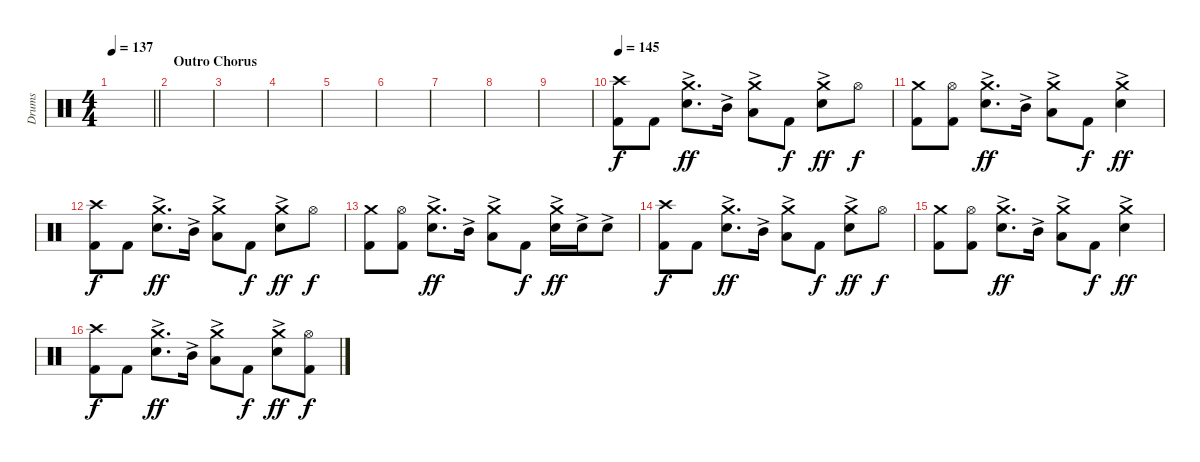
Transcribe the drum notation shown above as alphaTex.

\track ("Drums" "Drums") {instrument percussion}
\staff {score}
\articulation defaults
\ts (4 4)
\tempo 137
\clef neutral
\barLineRight lightlight
\ks c
|
\section ("" "Outro Chorus")
|
|
|
|
|
|
|
|
\tempo 145
("Crash high (hit)" "Kick (hit) 2").8 "Kick (hit) 2".8 ("Crash medium (hit)" "Electric Snare (hit)"{ac}).8{d dy ff} "Mid Tom (hit)"{ac}.16 ("Crash medium (hit)" "Low Tom (hit)"{ac}).8 "Kick (hit) 2".8{dy f} ("Crash medium (hit)" "Electric Snare (hit)"{ac}).8{dy ff} "Hi-Hat (open)".8{dy f} |
("Crash medium (hit)" "Kick (hit) 2").8 ("Hi-Hat (open)" "Kick (hit) 2").8 ("Crash medium (hit)" "Electric Snare (hit)"{ac}).8{d dy ff} "Mid Tom (hit)"{ac}.16 ("Crash medium (hit)" "Low Tom (hit)"{ac}).8 "Kick (hit) 2".8{dy f} ("Crash medium (hit)" "Electric Snare (hit)"{ac}).4{dy ff} |
("Crash high (hit)" "Kick (hit) 2").8{dy f} "Kick (hit) 2".8 ("Crash medium (hit)" "Electric Snare (hit)"{ac}).8{d dy ff} "Mid Tom (hit)"{ac}.16 ("Crash medium (hit)" "Low Tom (hit)"{ac}).8 "Kick (hit) 2".8{dy f} ("Crash medium (hit)" "Electric Snare (hit)"{ac}).8{dy ff} "Hi-Hat (open)".8{dy f} |
("Crash medium (hit)" "Kick (hit) 2").8 ("Hi-Hat (open)" "Kick (hit) 2").8 ("Crash medium (hit)" "Electric Snare (hit)"{ac}).8{d dy ff} "Mid Tom (hit)"{ac}.16 ("Crash medium (hit)" "Low Tom (hit)"{ac}).8 "Kick (hit) 2".8{dy f} ("Crash medium (hit)" "Electric Snare (hit)"{ac}).16{dy ff} "Electric Snare (hit)"{ac}.16 "Electric Snare (hit)"{ac}.8 |
("Crash high (hit)" "Kick (hit) 2").8{dy f} "Kick (hit) 2".8 ("Crash medium (hit)" "Electric Snare (hit)"{ac}).8{d dy ff} "Mid Tom (hit)"{ac}.16 ("Crash medium (hit)" "Low Tom (hit)"{ac}).8 "Kick (hit) 2".8{dy f} ("Crash medium (hit)" "Electric Snare (hit)"{ac}).8{dy ff} "Hi-Hat (open)".8{dy f} |
("Crash medium (hit)" "Kick (hit) 2").8 ("Hi-Hat (open)" "Kick (hit) 2").8 ("Crash medium (hit)" "Electric Snare (hit)"{ac}).8{d dy ff} "Mid Tom (hit)"{ac}.16 ("Crash medium (hit)" "Low Tom (hit)"{ac}).8 "Kick (hit) 2".8{dy f} ("Crash medium (hit)" "Electric Snare (hit)"{ac}).4{dy ff} |
("Crash high (hit)" "Kick (hit) 2").8{dy f} "Kick (hit) 2".8 ("Crash medium (hit)" "Electric Snare (hit)"{ac}).8{d dy ff} "Mid Tom (hit)"{ac}.16 ("Crash medium (hit)" "Low Tom (hit)"{ac}).8 "Kick (hit) 2".8{dy f} ("Crash medium (hit)" "Electric Snare (hit)"{ac}).8{dy ff} ("Hi-Hat (open)" "Kick (hit) 2").8{dy f}
